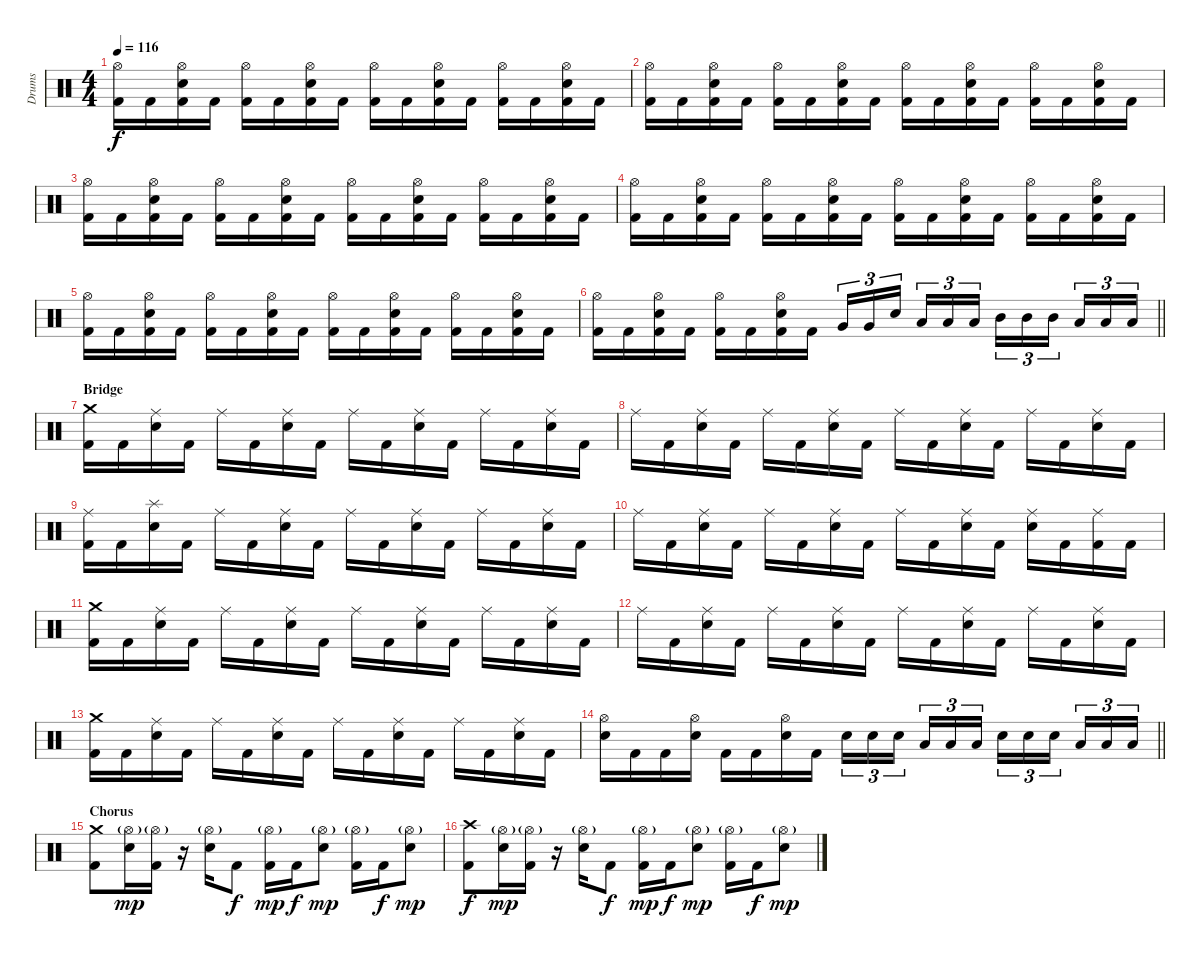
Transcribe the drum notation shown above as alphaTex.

\track ("Drums" "Drums") {instrument percussion}
\staff {score}
\articulation defaults
\ts (4 4)
\tempo 116
\clef neutral
\ks c
("Hi-Hat (open)" "Kick (hit) 2").16{dy f} "Kick (hit) 2".16 ("Hi-Hat (open)" "Kick (hit) 2" "Electric Snare (hit)").16 "Kick (hit) 2".16 ("Hi-Hat (open)" "Kick (hit) 2").16 "Kick (hit) 2".16 ("Hi-Hat (open)" "Kick (hit) 2" "Electric Snare (hit)").16 "Kick (hit) 2".16 ("Hi-Hat (open)" "Kick (hit) 2").16 "Kick (hit) 2".16 ("Hi-Hat (open)" "Kick (hit) 2" "Electric Snare (hit)").16 "Kick (hit) 2".16 ("Hi-Hat (open)" "Kick (hit) 2").16 "Kick (hit) 2".16 ("Hi-Hat (open)" "Kick (hit) 2" "Electric Snare (hit)").16 "Kick (hit) 2".16 |
("Hi-Hat (open)" "Kick (hit) 2").16 "Kick (hit) 2".16 ("Hi-Hat (open)" "Kick (hit) 2" "Electric Snare (hit)").16 "Kick (hit) 2".16 ("Hi-Hat (open)" "Kick (hit) 2").16 "Kick (hit) 2".16 ("Hi-Hat (open)" "Kick (hit) 2" "Electric Snare (hit)").16 "Kick (hit) 2".16 ("Hi-Hat (open)" "Kick (hit) 2").16 "Kick (hit) 2".16 ("Hi-Hat (open)" "Kick (hit) 2" "Electric Snare (hit)").16 "Kick (hit) 2".16 ("Hi-Hat (open)" "Kick (hit) 2").16 "Kick (hit) 2".16 ("Hi-Hat (open)" "Kick (hit) 2" "Electric Snare (hit)").16 "Kick (hit) 2".16 |
("Hi-Hat (open)" "Kick (hit) 2").16 "Kick (hit) 2".16 ("Hi-Hat (open)" "Kick (hit) 2" "Electric Snare (hit)").16 "Kick (hit) 2".16 ("Hi-Hat (open)" "Kick (hit) 2").16 "Kick (hit) 2".16 ("Hi-Hat (open)" "Kick (hit) 2" "Electric Snare (hit)").16 "Kick (hit) 2".16 ("Hi-Hat (open)" "Kick (hit) 2").16 "Kick (hit) 2".16 ("Hi-Hat (open)" "Kick (hit) 2" "Electric Snare (hit)").16 "Kick (hit) 2".16 ("Hi-Hat (open)" "Kick (hit) 2").16 "Kick (hit) 2".16 ("Hi-Hat (open)" "Kick (hit) 2" "Electric Snare (hit)").16 "Kick (hit) 2".16 |
("Hi-Hat (open)" "Kick (hit) 2").16 "Kick (hit) 2".16 ("Hi-Hat (open)" "Kick (hit) 2" "Electric Snare (hit)").16 "Kick (hit) 2".16 ("Hi-Hat (open)" "Kick (hit) 2").16 "Kick (hit) 2".16 ("Hi-Hat (open)" "Kick (hit) 2" "Electric Snare (hit)").16 "Kick (hit) 2".16 ("Hi-Hat (open)" "Kick (hit) 2").16 "Kick (hit) 2".16 ("Hi-Hat (open)" "Kick (hit) 2" "Electric Snare (hit)").16 "Kick (hit) 2".16 ("Hi-Hat (open)" "Kick (hit) 2").16 "Kick (hit) 2".16 ("Hi-Hat (open)" "Kick (hit) 2" "Electric Snare (hit)").16 "Kick (hit) 2".16 |
("Hi-Hat (open)" "Kick (hit) 2").16 "Kick (hit) 2".16 ("Hi-Hat (open)" "Kick (hit) 2" "Electric Snare (hit)").16 "Kick (hit) 2".16 ("Hi-Hat (open)" "Kick (hit) 2").16 "Kick (hit) 2".16 ("Hi-Hat (open)" "Kick (hit) 2" "Electric Snare (hit)").16 "Kick (hit) 2".16 ("Hi-Hat (open)" "Kick (hit) 2").16 "Kick (hit) 2".16 ("Hi-Hat (open)" "Kick (hit) 2" "Electric Snare (hit)").16 "Kick (hit) 2".16 ("Hi-Hat (open)" "Kick (hit) 2").16 "Kick (hit) 2".16 ("Hi-Hat (open)" "Kick (hit) 2" "Electric Snare (hit)").16 "Kick (hit) 2".16 |
\barLineRight lightlight
("Hi-Hat (open)" "Kick (hit) 2").16 "Kick (hit) 2".16 ("Hi-Hat (open)" "Kick (hit) 2" "Electric Snare (hit)").16 "Kick (hit) 2".16 ("Hi-Hat (open)" "Kick (hit) 2").16 "Kick (hit) 2".16 ("Hi-Hat (open)" "Kick (hit) 2" "Electric Snare (hit)").16 "Kick (hit) 2".16 "Very Low Tom (hit)".16{tu (3 2)} "Very Low Tom (hit)".16{tu (3 2)} "Electric Snare (hit)".16{tu (3 2) beam splitsecondary} "Low Floor Tom (hit)".16{tu (3 2)} "Low Floor Tom (hit)".16{tu (3 2)} "Low Floor Tom (hit)".16{tu (3 2)} "Mid Tom (hit)".16{tu (3 2)} "Mid Tom (hit)".16{tu (3 2)} "Mid Tom (hit)".16{tu (3 2) beam splitsecondary} "Low Tom (hit)".16{tu (3 2)} "Low Tom (hit)".16{tu (3 2)} "Low Tom (hit)".16{tu (3 2)} |
\section ("" "Bridge")
("Crash medium (hit)" "Kick (hit) 2").16 "Kick (hit) 2".16 ("Ride (middle)" "Electric Snare (hit)").16 "Kick (hit) 2".16 "Ride (middle)".16 "Kick (hit) 2".16 ("Ride (middle)" "Electric Snare (hit)").16 "Kick (hit) 2".16 "Ride (middle)".16 "Kick (hit) 2".16 ("Ride (middle)" "Electric Snare (hit)").16 "Kick (hit) 2".16 "Ride (middle)".16 "Kick (hit) 2".16 ("Ride (middle)" "Electric Snare (hit)").16 "Kick (hit) 2".16 |
"Ride (middle)".16 "Kick (hit) 2".16 ("Ride (middle)" "Electric Snare (hit)").16 "Kick (hit) 2".16 "Ride (middle)".16 "Kick (hit) 2".16 ("Ride (middle)" "Electric Snare (hit)").16 "Kick (hit) 2".16 "Ride (middle)".16 "Kick (hit) 2".16 ("Ride (middle)" "Electric Snare (hit)").16 "Kick (hit) 2".16 "Ride (middle)".16 "Kick (hit) 2".16 ("Ride (middle)" "Electric Snare (hit)").16 "Kick (hit) 2".16 |
("Ride (middle)" "Kick (hit) 2").16 "Kick (hit) 2".16 ("Splash (hit)" "Electric Snare (hit)").16 "Kick (hit) 2".16 "Ride (middle)".16 "Kick (hit) 2".16 ("Ride (middle)" "Electric Snare (hit)").16 "Kick (hit) 2".16 "Ride (middle)".16 "Kick (hit) 2".16 ("Ride (middle)" "Electric Snare (hit)").16 "Kick (hit) 2".16 "Ride (middle)".16 "Kick (hit) 2".16 ("Ride (middle)" "Electric Snare (hit)").16 "Kick (hit) 2".16 |
"Ride (middle)".16 "Kick (hit) 2".16 ("Ride (middle)" "Electric Snare (hit)").16 "Kick (hit) 2".16 "Ride (middle)".16 "Kick (hit) 2".16 ("Ride (middle)" "Electric Snare (hit)").16 "Kick (hit) 2".16 "Ride (middle)".16 "Kick (hit) 2".16 ("Ride (middle)" "Electric Snare (hit)").16 "Kick (hit) 2".16 ("Ride (middle)" "Electric Snare (hit)").16 "Kick (hit) 2".16 ("Ride (middle)" "Kick (hit) 2").16 "Kick (hit) 2".16 |
("Crash medium (hit)" "Kick (hit) 2").16 "Kick (hit) 2".16 ("Ride (middle)" "Electric Snare (hit)").16 "Kick (hit) 2".16 "Ride (middle)".16 "Kick (hit) 2".16 ("Ride (middle)" "Electric Snare (hit)").16 "Kick (hit) 2".16 "Ride (middle)".16 "Kick (hit) 2".16 ("Ride (middle)" "Electric Snare (hit)").16 "Kick (hit) 2".16 "Ride (middle)".16 "Kick (hit) 2".16 ("Ride (middle)" "Electric Snare (hit)").16 "Kick (hit) 2".16 |
"Ride (middle)".16 "Kick (hit) 2".16 ("Ride (middle)" "Electric Snare (hit)").16 "Kick (hit) 2".16 "Ride (middle)".16 "Kick (hit) 2".16 ("Ride (middle)" "Electric Snare (hit)").16 "Kick (hit) 2".16 "Ride (middle)".16 "Kick (hit) 2".16 ("Ride (middle)" "Electric Snare (hit)").16 "Kick (hit) 2".16 "Ride (middle)".16 "Kick (hit) 2".16 ("Ride (middle)" "Electric Snare (hit)").16 "Kick (hit) 2".16 |
("Crash medium (hit)" "Kick (hit) 2").16 "Kick (hit) 2".16 ("Ride (middle)" "Electric Snare (hit)").16 "Kick (hit) 2".16 "Ride (middle)".16 "Kick (hit) 2".16 ("Ride (middle)" "Electric Snare (hit)").16 "Kick (hit) 2".16 "Ride (middle)".16 "Kick (hit) 2".16 ("Ride (middle)" "Electric Snare (hit)").16 "Kick (hit) 2".16 "Ride (middle)".16 "Kick (hit) 2".16 ("Ride (middle)" "Electric Snare (hit)").16 "Kick (hit) 2".16 |
\barLineRight lightlight
("Hi-Hat (open)" "Electric Snare (hit)").16 "Kick (hit) 2".16 "Kick (hit) 2".16 ("Hi-Hat (open)" "Electric Snare (hit)").16 "Kick (hit) 2".16 "Kick (hit) 2".16 ("Hi-Hat (open)" "Electric Snare (hit)").16 "Kick (hit) 2".16 "Electric Snare (hit)".16{tu (3 2)} "Electric Snare (hit)".16{tu (3 2)} "Electric Snare (hit)".16{tu (3 2) beam splitsecondary} "Low Floor Tom (hit)".16{tu (3 2)} "Low Floor Tom (hit)".16{tu (3 2)} "Low Floor Tom (hit)".16{tu (3 2)} "Electric Snare (hit)".16{tu (3 2)} "Electric Snare (hit)".16{tu (3 2)} "Electric Snare (hit)".16{tu (3 2) beam splitsecondary} "Low Tom (hit)".16{tu (3 2)} "Low Tom (hit)".16{tu (3 2)} "Low Tom (hit)".16{tu (3 2)} |
\section ("" "Chorus")
("Crash medium (hit)" "Kick (hit) 2").8 ("Hi-Hat (open)"{g} "Electric Snare (hit)").16{dy mp} ("Hi-Hat (open)"{g} "Kick (hit) 2").16 r.16 ("Hi-Hat (open)"{g} "Electric Snare (hit)").16 "Kick (hit) 2".8{dy f} ("Hi-Hat (open)"{g} "Kick (hit) 2").16{dy mp} "Kick (hit) 2".16{dy f} ("Hi-Hat (open)"{g} "Electric Snare (hit)").8{dy mp} ("Hi-Hat (open)"{g} "Kick (hit) 2").16 "Kick (hit) 2".16{dy f} ("Hi-Hat (open)"{g} "Electric Snare (hit)").8{dy mp} |
("Crash high (hit)" "Kick (hit) 2").8{dy f} ("Hi-Hat (open)"{g} "Electric Snare (hit)").16{dy mp} ("Hi-Hat (open)"{g} "Kick (hit) 2").16 r.16 ("Hi-Hat (open)"{g} "Electric Snare (hit)").16 "Kick (hit) 2".8{dy f} ("Hi-Hat (open)"{g} "Kick (hit) 2").16{dy mp} "Kick (hit) 2".16{dy f} ("Hi-Hat (open)"{g} "Electric Snare (hit)").8{dy mp} ("Hi-Hat (open)"{g} "Kick (hit) 2").16 "Kick (hit) 2".16{dy f} ("Hi-Hat (open)"{g} "Electric Snare (hit)").8{dy mp}
